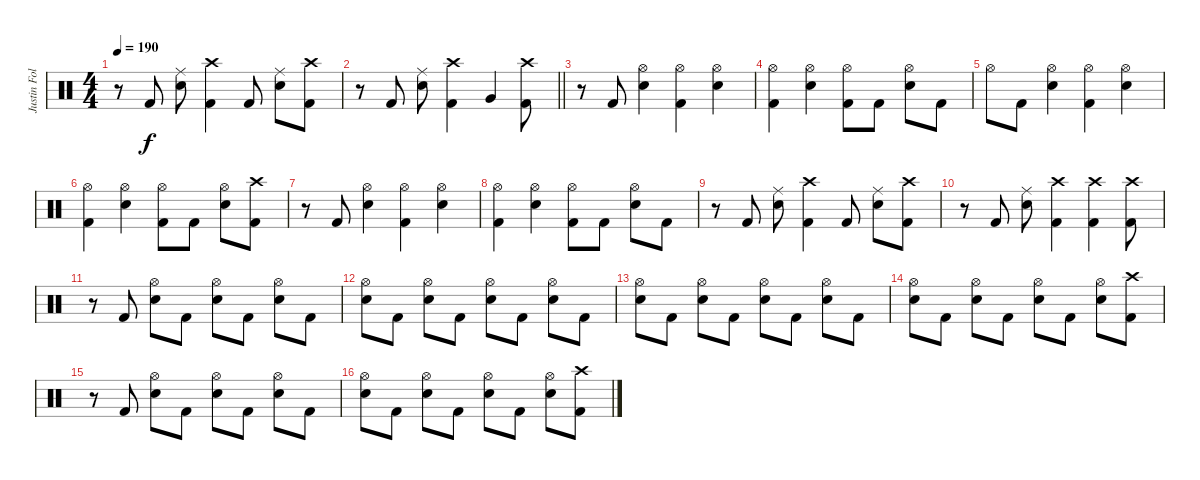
\track ("Justin Foley" "Justin Fol") {instrument percussion}
\staff {score}
\articulation defaults
\ts (4 4)
\tempo 190
\clef neutral
\ks c
r.8{dy f} "Kick (hit) 2".8 ("Ride (middle)" "Electric Snare (hit)").8 ("Crash high (hit)" "Kick (hit) 2").4 "Kick (hit) 2".8 ("Ride (middle)" "Electric Snare (hit)").8 ("Crash high (hit)" "Kick (hit) 2").8 |
\barLineRight lightlight
r.8 "Kick (hit) 2".8 ("Ride (middle)" "Electric Snare (hit)").8 ("Crash high (hit)" "Kick (hit) 2").4 "Very Low Tom (hit)".4 ("Crash high (hit)" "Kick (hit) 2").8 |
r.8 "Kick (hit) 2".8 ("Hi-Hat (open)" "Electric Snare (hit)").4 ("Hi-Hat (open)" "Kick (hit) 2").4 ("Hi-Hat (open)" "Electric Snare (hit)").4 |
("Hi-Hat (open)" "Kick (hit) 2").4 ("Hi-Hat (open)" "Electric Snare (hit)").4 ("Hi-Hat (open)" "Kick (hit) 2").8 "Kick (hit) 2".8 ("Hi-Hat (open)" "Electric Snare (hit)").8 "Kick (hit) 2".8 |
"Hi-Hat (open)".8 "Kick (hit) 2".8 ("Hi-Hat (open)" "Electric Snare (hit)").4 ("Hi-Hat (open)" "Kick (hit) 2").4 ("Hi-Hat (open)" "Electric Snare (hit)").4 |
("Hi-Hat (open)" "Kick (hit) 2").4 ("Hi-Hat (open)" "Electric Snare (hit)").4 ("Hi-Hat (open)" "Kick (hit) 2").8 "Kick (hit) 2".8 ("Hi-Hat (open)" "Electric Snare (hit)").8 ("Crash high (hit)" "Kick (hit) 2").8 |
r.8 "Kick (hit) 2".8 ("Hi-Hat (open)" "Electric Snare (hit)").4 ("Hi-Hat (open)" "Kick (hit) 2").4 ("Hi-Hat (open)" "Electric Snare (hit)").4 |
("Hi-Hat (open)" "Kick (hit) 2").4 ("Hi-Hat (open)" "Electric Snare (hit)").4 ("Hi-Hat (open)" "Kick (hit) 2").8 "Kick (hit) 2".8 ("Hi-Hat (open)" "Electric Snare (hit)").8 "Kick (hit) 2".8 |
r.8 "Kick (hit) 2".8 ("Ride (middle)" "Electric Snare (hit)").8 ("Crash high (hit)" "Kick (hit) 2").4 "Kick (hit) 2".8 ("Ride (middle)" "Electric Snare (hit)").8 ("Crash high (hit)" "Kick (hit) 2").8 |
r.8 "Kick (hit) 2".8 ("Ride (middle)" "Electric Snare (hit)").8 ("Crash high (hit)" "Kick (hit) 2").4 ("Crash high (hit)" "Kick (hit) 2").4 ("Crash high (hit)" "Kick (hit) 2").8 |
r.8 "Kick (hit) 2".8 ("Hi-Hat (open)" "Electric Snare (hit)").8 "Kick (hit) 2".8 ("Hi-Hat (open)" "Electric Snare (hit)").8 "Kick (hit) 2".8 ("Hi-Hat (open)" "Electric Snare (hit)").8 "Kick (hit) 2".8 |
("Hi-Hat (open)" "Electric Snare (hit)").8 "Kick (hit) 2".8 ("Hi-Hat (open)" "Electric Snare (hit)").8 "Kick (hit) 2".8 ("Hi-Hat (open)" "Electric Snare (hit)").8 "Kick (hit) 2".8 ("Hi-Hat (open)" "Electric Snare (hit)").8 "Kick (hit) 2".8 |
("Hi-Hat (open)" "Electric Snare (hit)").8 "Kick (hit) 2".8 ("Hi-Hat (open)" "Electric Snare (hit)").8 "Kick (hit) 2".8 ("Hi-Hat (open)" "Electric Snare (hit)").8 "Kick (hit) 2".8 ("Hi-Hat (open)" "Electric Snare (hit)").8 "Kick (hit) 2".8 |
("Hi-Hat (open)" "Electric Snare (hit)").8 "Kick (hit) 2".8 ("Hi-Hat (open)" "Electric Snare (hit)").8 "Kick (hit) 2".8 ("Hi-Hat (open)" "Electric Snare (hit)").8 "Kick (hit) 2".8 ("Hi-Hat (open)" "Electric Snare (hit)").8 ("Crash high (hit)" "Kick (hit) 2").8 |
r.8 "Kick (hit) 2".8 ("Hi-Hat (open)" "Electric Snare (hit)").8 "Kick (hit) 2".8 ("Hi-Hat (open)" "Electric Snare (hit)").8 "Kick (hit) 2".8 ("Hi-Hat (open)" "Electric Snare (hit)").8 "Kick (hit) 2".8 |
("Hi-Hat (open)" "Electric Snare (hit)").8 "Kick (hit) 2".8 ("Hi-Hat (open)" "Electric Snare (hit)").8 "Kick (hit) 2".8 ("Hi-Hat (open)" "Electric Snare (hit)").8 "Kick (hit) 2".8 ("Hi-Hat (open)" "Electric Snare (hit)").8 ("Crash high (hit)" "Kick (hit) 2").8
